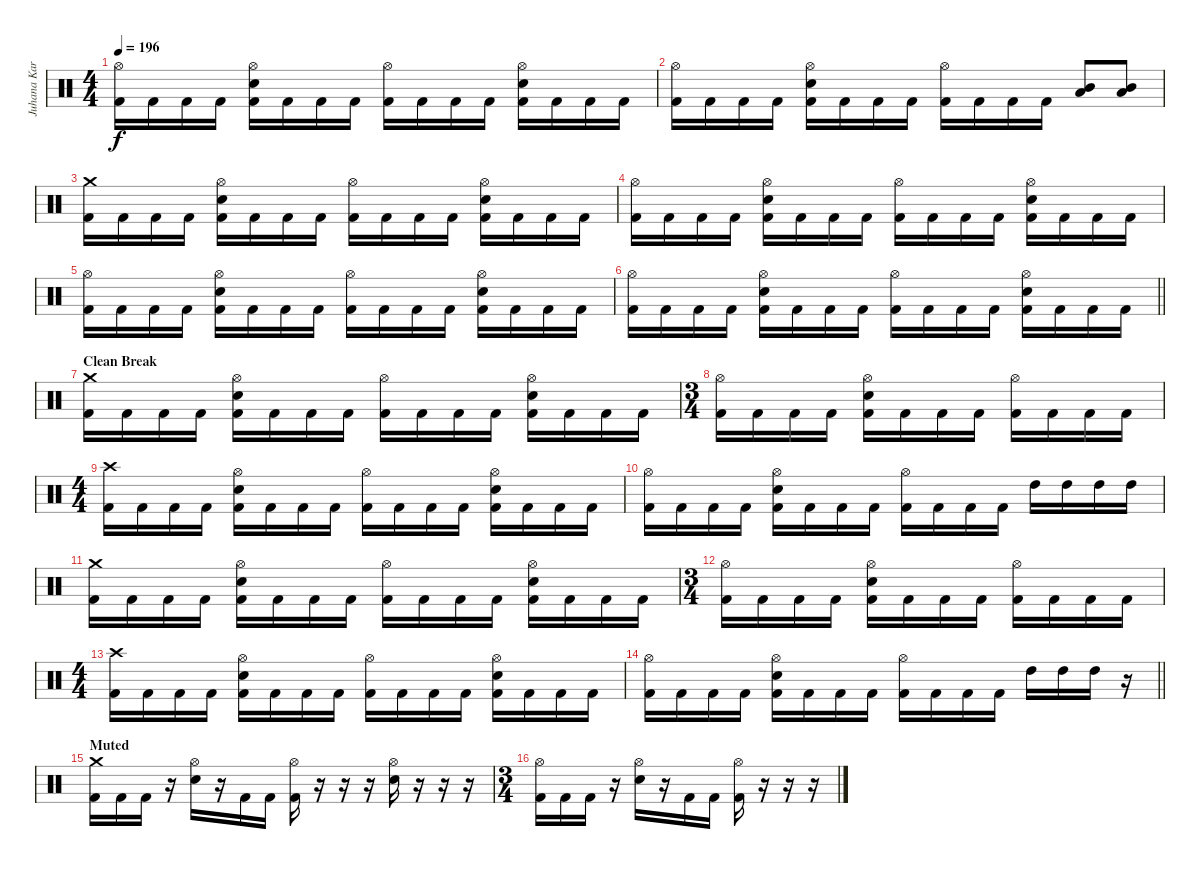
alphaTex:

\track ("Juhana Karlsson " "Juhana Kar") {instrument percussion}
\staff {score}
\articulation defaults
\ts (4 4)
\tempo 196
\clef neutral
\ks c
("Hi-Hat (open)" "Kick (hit) 2").16{dy f} "Kick (hit) 2".16 "Kick (hit) 2".16 "Kick (hit) 2".16 ("Hi-Hat (open)" "Electric Snare (hit)" "Kick (hit) 2").16 "Kick (hit) 2".16 "Kick (hit) 2".16 "Kick (hit) 2".16 ("Hi-Hat (open)" "Kick (hit) 2").16 "Kick (hit) 2".16 "Kick (hit) 2".16 "Kick (hit) 2".16 ("Hi-Hat (open)" "Electric Snare (hit)" "Kick (hit) 2").16 "Kick (hit) 2".16 "Kick (hit) 2".16 "Kick (hit) 2".16 |
("Hi-Hat (open)" "Kick (hit) 2").16 "Kick (hit) 2".16 "Kick (hit) 2".16 "Kick (hit) 2".16 ("Hi-Hat (open)" "Electric Snare (hit)" "Kick (hit) 2").16 "Kick (hit) 2".16 "Kick (hit) 2".16 "Kick (hit) 2".16 ("Hi-Hat (open)" "Kick (hit) 2").16 "Kick (hit) 2".16 "Kick (hit) 2".16 "Kick (hit) 2".16 ("Mid Tom (hit)" "Low Tom (hit)").8 ("Mid Tom (hit)" "Low Tom (hit)").8 |
("Crash medium (hit)" "Kick (hit) 2").16 "Kick (hit) 2".16 "Kick (hit) 2".16 "Kick (hit) 2".16 ("Hi-Hat (open)" "Electric Snare (hit)" "Kick (hit) 2").16 "Kick (hit) 2".16 "Kick (hit) 2".16 "Kick (hit) 2".16 ("Hi-Hat (open)" "Kick (hit) 2").16 "Kick (hit) 2".16 "Kick (hit) 2".16 "Kick (hit) 2".16 ("Hi-Hat (open)" "Electric Snare (hit)" "Kick (hit) 2").16 "Kick (hit) 2".16 "Kick (hit) 2".16 "Kick (hit) 2".16 |
("Hi-Hat (open)" "Kick (hit) 2").16 "Kick (hit) 2".16 "Kick (hit) 2".16 "Kick (hit) 2".16 ("Hi-Hat (open)" "Electric Snare (hit)" "Kick (hit) 2").16 "Kick (hit) 2".16 "Kick (hit) 2".16 "Kick (hit) 2".16 ("Hi-Hat (open)" "Kick (hit) 2").16 "Kick (hit) 2".16 "Kick (hit) 2".16 "Kick (hit) 2".16 ("Hi-Hat (open)" "Electric Snare (hit)" "Kick (hit) 2").16 "Kick (hit) 2".16 "Kick (hit) 2".16 "Kick (hit) 2".16 |
("Hi-Hat (open)" "Kick (hit) 2").16 "Kick (hit) 2".16 "Kick (hit) 2".16 "Kick (hit) 2".16 ("Hi-Hat (open)" "Electric Snare (hit)" "Kick (hit) 2").16 "Kick (hit) 2".16 "Kick (hit) 2".16 "Kick (hit) 2".16 ("Hi-Hat (open)" "Kick (hit) 2").16 "Kick (hit) 2".16 "Kick (hit) 2".16 "Kick (hit) 2".16 ("Hi-Hat (open)" "Electric Snare (hit)" "Kick (hit) 2").16 "Kick (hit) 2".16 "Kick (hit) 2".16 "Kick (hit) 2".16 |
\barLineRight lightlight
("Hi-Hat (open)" "Kick (hit) 2").16 "Kick (hit) 2".16 "Kick (hit) 2".16 "Kick (hit) 2".16 ("Hi-Hat (open)" "Electric Snare (hit)" "Kick (hit) 2").16 "Kick (hit) 2".16 "Kick (hit) 2".16 "Kick (hit) 2".16 ("Hi-Hat (open)" "Kick (hit) 2").16 "Kick (hit) 2".16 "Kick (hit) 2".16 "Kick (hit) 2".16 ("Hi-Hat (open)" "Electric Snare (hit)" "Kick (hit) 2").16 "Kick (hit) 2".16 "Kick (hit) 2".16 "Kick (hit) 2".16 |
\section ("" "Clean Break")
("Crash medium (hit)" "Kick (hit) 2").16 "Kick (hit) 2".16 "Kick (hit) 2".16 "Kick (hit) 2".16 ("Hi-Hat (open)" "Electric Snare (hit)" "Kick (hit) 2").16 "Kick (hit) 2".16 "Kick (hit) 2".16 "Kick (hit) 2".16 ("Hi-Hat (open)" "Kick (hit) 2").16 "Kick (hit) 2".16 "Kick (hit) 2".16 "Kick (hit) 2".16 ("Hi-Hat (open)" "Electric Snare (hit)" "Kick (hit) 2").16 "Kick (hit) 2".16 "Kick (hit) 2".16 "Kick (hit) 2".16 |
\ts (3 4)
("Hi-Hat (open)" "Kick (hit) 2").16 "Kick (hit) 2".16 "Kick (hit) 2".16 "Kick (hit) 2".16 ("Hi-Hat (open)" "Electric Snare (hit)" "Kick (hit) 2").16 "Kick (hit) 2".16 "Kick (hit) 2".16 "Kick (hit) 2".16 ("Hi-Hat (open)" "Kick (hit) 2").16 "Kick (hit) 2".16 "Kick (hit) 2".16 "Kick (hit) 2".16 |
\ts (4 4)
("Crash high (hit)" "Kick (hit) 2").16 "Kick (hit) 2".16 "Kick (hit) 2".16 "Kick (hit) 2".16 ("Hi-Hat (open)" "Electric Snare (hit)" "Kick (hit) 2").16 "Kick (hit) 2".16 "Kick (hit) 2".16 "Kick (hit) 2".16 ("Hi-Hat (open)" "Kick (hit) 2").16 "Kick (hit) 2".16 "Kick (hit) 2".16 "Kick (hit) 2".16 ("Hi-Hat (open)" "Electric Snare (hit)" "Kick (hit) 2").16 "Kick (hit) 2".16 "Kick (hit) 2".16 "Kick (hit) 2".16 |
("Hi-Hat (open)" "Kick (hit) 2").16 "Kick (hit) 2".16 "Kick (hit) 2".16 "Kick (hit) 2".16 ("Hi-Hat (open)" "Electric Snare (hit)" "Kick (hit) 2").16 "Kick (hit) 2".16 "Kick (hit) 2".16 "Kick (hit) 2".16 ("Hi-Hat (open)" "Kick (hit) 2").16 "Kick (hit) 2".16 "Kick (hit) 2".16 "Kick (hit) 2".16 "High Tom (hit)".16 "High Tom (hit)".16 "High Tom (hit)".16 "High Tom (hit)".16 |
("Crash medium (hit)" "Kick (hit) 2").16 "Kick (hit) 2".16 "Kick (hit) 2".16 "Kick (hit) 2".16 ("Hi-Hat (open)" "Electric Snare (hit)" "Kick (hit) 2").16 "Kick (hit) 2".16 "Kick (hit) 2".16 "Kick (hit) 2".16 ("Hi-Hat (open)" "Kick (hit) 2").16 "Kick (hit) 2".16 "Kick (hit) 2".16 "Kick (hit) 2".16 ("Hi-Hat (open)" "Electric Snare (hit)" "Kick (hit) 2").16 "Kick (hit) 2".16 "Kick (hit) 2".16 "Kick (hit) 2".16 |
\ts (3 4)
("Hi-Hat (open)" "Kick (hit) 2").16 "Kick (hit) 2".16 "Kick (hit) 2".16 "Kick (hit) 2".16 ("Hi-Hat (open)" "Electric Snare (hit)" "Kick (hit) 2").16 "Kick (hit) 2".16 "Kick (hit) 2".16 "Kick (hit) 2".16 ("Hi-Hat (open)" "Kick (hit) 2").16 "Kick (hit) 2".16 "Kick (hit) 2".16 "Kick (hit) 2".16 |
\ts (4 4)
("Crash high (hit)" "Kick (hit) 2").16 "Kick (hit) 2".16 "Kick (hit) 2".16 "Kick (hit) 2".16 ("Hi-Hat (open)" "Electric Snare (hit)" "Kick (hit) 2").16 "Kick (hit) 2".16 "Kick (hit) 2".16 "Kick (hit) 2".16 ("Hi-Hat (open)" "Kick (hit) 2").16 "Kick (hit) 2".16 "Kick (hit) 2".16 "Kick (hit) 2".16 ("Hi-Hat (open)" "Electric Snare (hit)" "Kick (hit) 2").16 "Kick (hit) 2".16 "Kick (hit) 2".16 "Kick (hit) 2".16 |
\barLineRight lightlight
("Hi-Hat (open)" "Kick (hit) 2").16 "Kick (hit) 2".16 "Kick (hit) 2".16 "Kick (hit) 2".16 ("Hi-Hat (open)" "Electric Snare (hit)" "Kick (hit) 2").16 "Kick (hit) 2".16 "Kick (hit) 2".16 "Kick (hit) 2".16 ("Hi-Hat (open)" "Kick (hit) 2").16 "Kick (hit) 2".16 "Kick (hit) 2".16 "Kick (hit) 2".16 "High Tom (hit)".16 "High Tom (hit)".16 "High Tom (hit)".16 r.16 |
\section ("" "Muted")
("Crash medium (hit)" "Kick (hit) 2").16 "Kick (hit) 2".16 "Kick (hit) 2".16 r.16 ("Hi-Hat (open)" "Electric Snare (hit)").16 r.16 "Kick (hit) 2".16 "Kick (hit) 2".16 ("Hi-Hat (open)" "Kick (hit) 2").16 r.16 r.16 r.16 ("Hi-Hat (open)" "Electric Snare (hit)").16 r.16 r.16 r.16 |
\ts (3 4)
("Hi-Hat (open)" "Kick (hit) 2").16 "Kick (hit) 2".16 "Kick (hit) 2".16 r.16 ("Hi-Hat (open)" "Electric Snare (hit)").16 r.16 "Kick (hit) 2".16 "Kick (hit) 2".16 ("Hi-Hat (open)" "Kick (hit) 2").16 r.16 r.16 r.16
